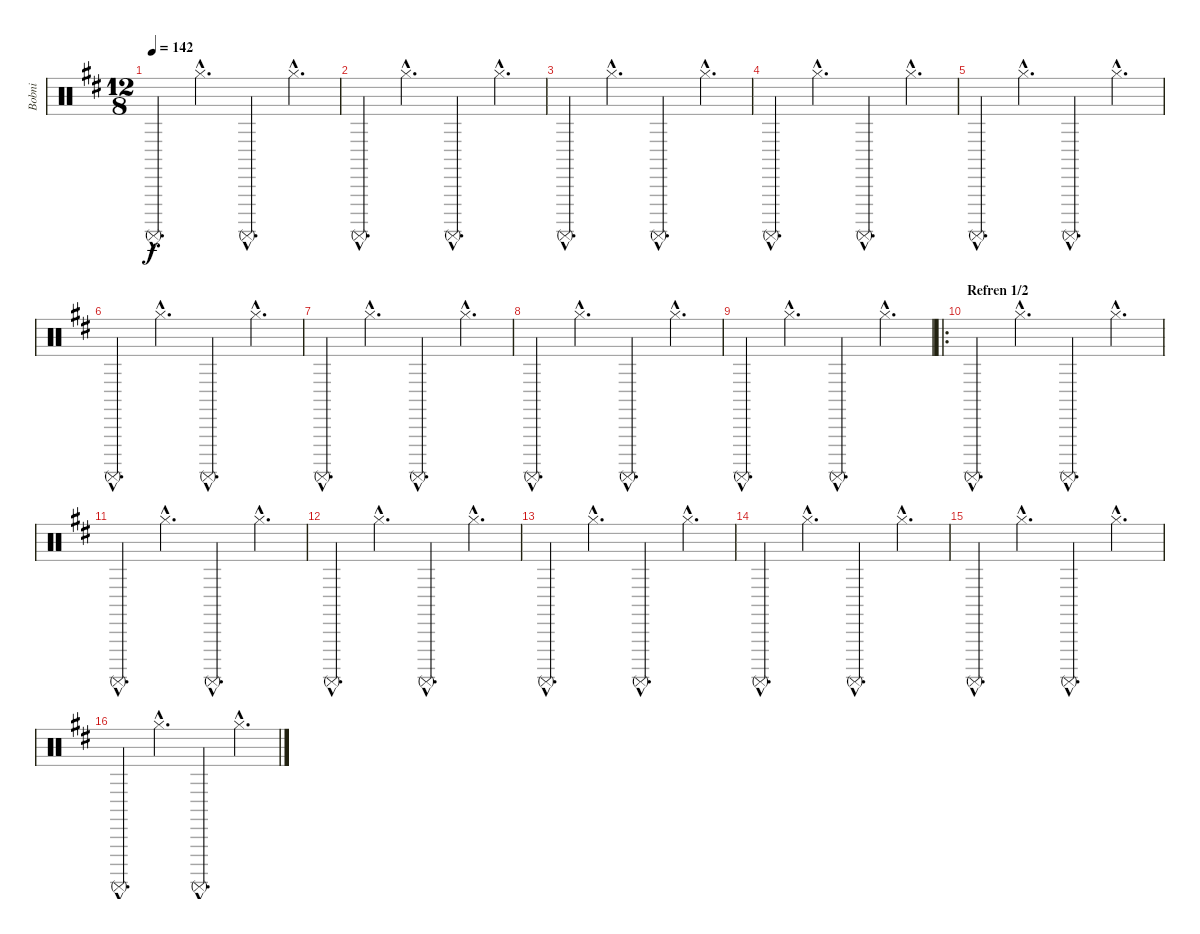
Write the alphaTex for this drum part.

\track ("Bobni" "Bobni") {instrument percussion}
\staff {score}
\articulation defaults
\ts (12 8)
\tempo 142
\clef neutral
\ks d "Surdo (mute)"{hac}.4{d dy f} "Hi-Hat (closed)"{hac}.4{d} "Surdo (mute)"{hac}.4{d} "Hi-Hat (closed)"{hac}.4{d}
|
"Surdo (mute)"{hac}.4{d} "Hi-Hat (closed)"{hac}.4{d} "Surdo (mute)"{hac}.4{d} "Hi-Hat (closed)"{hac}.4{d} |
"Surdo (mute)"{hac}.4{d} "Hi-Hat (closed)"{hac}.4{d} "Surdo (mute)"{hac}.4{d} "Hi-Hat (closed)"{hac}.4{d} |
"Surdo (mute)"{hac}.4{d} "Hi-Hat (closed)"{hac}.4{d} "Surdo (mute)"{hac}.4{d} "Hi-Hat (closed)"{hac}.4{d} |
"Surdo (mute)"{hac}.4{d} "Hi-Hat (closed)"{hac}.4{d} "Surdo (mute)"{hac}.4{d} "Hi-Hat (closed)"{hac}.4{d} |
"Surdo (mute)"{hac}.4{d} "Hi-Hat (closed)"{hac}.4{d} "Surdo (mute)"{hac}.4{d} "Hi-Hat (closed)"{hac}.4{d} |
"Surdo (mute)"{hac}.4{d} "Hi-Hat (closed)"{hac}.4{d} "Surdo (mute)"{hac}.4{d} "Hi-Hat (closed)"{hac}.4{d} |
"Surdo (mute)"{hac}.4{d} "Hi-Hat (closed)"{hac}.4{d} "Surdo (mute)"{hac}.4{d} "Hi-Hat (closed)"{hac}.4{d} |
"Surdo (mute)"{hac}.4{d} "Hi-Hat (closed)"{hac}.4{d} "Surdo (mute)"{hac}.4{d} "Hi-Hat (closed)"{hac}.4{d} |
\ro
\section ("" "Refren 1/2")
"Surdo (mute)"{hac}.4{d} "Hi-Hat (closed)"{hac}.4{d} "Surdo (mute)"{hac}.4{d} "Hi-Hat (closed)"{hac}.4{d} |
"Surdo (mute)"{hac}.4{d} "Hi-Hat (closed)"{hac}.4{d} "Surdo (mute)"{hac}.4{d} "Hi-Hat (closed)"{hac}.4{d} |
"Surdo (mute)"{hac}.4{d} "Hi-Hat (closed)"{hac}.4{d} "Surdo (mute)"{hac}.4{d} "Hi-Hat (closed)"{hac}.4{d} |
"Surdo (mute)"{hac}.4{d} "Hi-Hat (closed)"{hac}.4{d} "Surdo (mute)"{hac}.4{d} "Hi-Hat (closed)"{hac}.4{d} |
"Surdo (mute)"{hac}.4{d} "Hi-Hat (closed)"{hac}.4{d} "Surdo (mute)"{hac}.4{d} "Hi-Hat (closed)"{hac}.4{d} |
"Surdo (mute)"{hac}.4{d} "Hi-Hat (closed)"{hac}.4{d} "Surdo (mute)"{hac}.4{d} "Hi-Hat (closed)"{hac}.4{d} |
"Surdo (mute)"{hac}.4{d} "Hi-Hat (closed)"{hac}.4{d} "Surdo (mute)"{hac}.4{d} "Hi-Hat (closed)"{hac}.4{d}
